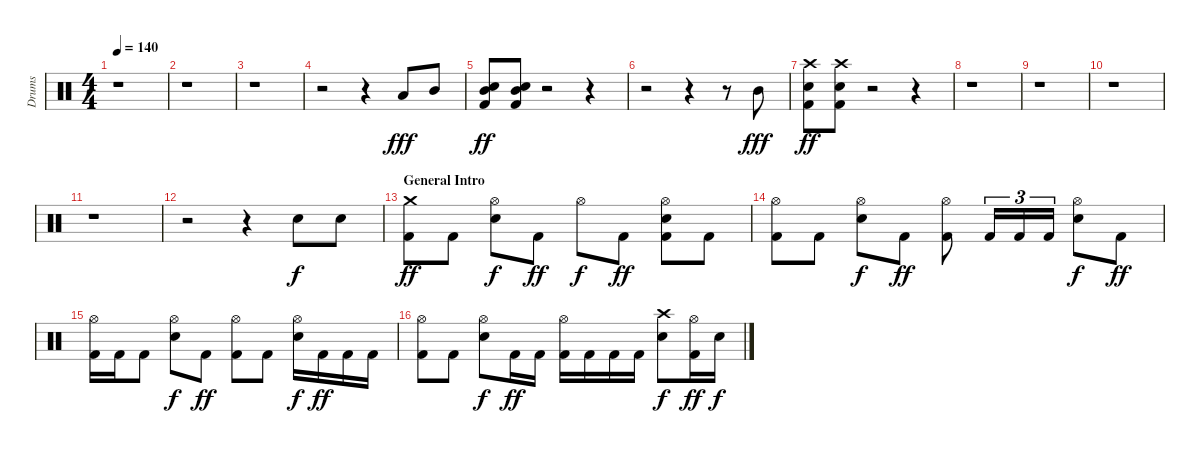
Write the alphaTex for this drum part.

\track ("Drums" "Drums") {instrument percussion}
\staff {score}
\articulation defaults
\ts (4 4)
\tempo 140
\clef neutral
\ks c
r.1{dy fff} |
r.1 |
r.1 |
r.2 r.4 "Low Tom (hit)".8 "Mid Tom (hit)".8 |
("Mid Tom (hit)" "Snare (hit) 2" "Kick (hit) 2").8{dy ff} ("Mid Tom (hit)" "Snare (hit) 2" "Kick (hit) 2").8 r.2 r.4 |
r.2 r.4 r.8 "Mid Tom (hit)".8{dy fff} |
("Crash high (hit)" "Snare (hit) 2" "Kick (hit) 2").8{dy ff} ("Crash high (hit)" "Snare (hit) 2" "Kick (hit) 2").8 r.2 r.4 |
r.1 |
r.1 |
r.1 |
r.1 |
r.2 r.4 "Snare (hit) 2".8{dy f} "Snare (hit) 2".8 |
\section ("" "General Intro")
("Crash medium (hit)" "Kick (hit) 2").8{dy ff} "Kick (hit) 2".8 ("Hi-Hat (open)" "Snare (hit) 2").8{dy f} "Kick (hit) 2".8{dy ff} "Hi-Hat (open)".8{dy f} "Kick (hit) 2".8{dy ff} ("Hi-Hat (open)" "Snare (hit) 2" "Kick (hit) 2").8 "Kick (hit) 2".8 |
("Hi-Hat (open)" "Kick (hit) 2").8 "Kick (hit) 2".8 ("Hi-Hat (open)" "Snare (hit) 2").8{dy f} "Kick (hit) 2".8{dy ff} ("Hi-Hat (open)" "Kick (hit) 2").8 "Kick (hit) 2".16{tu (3 2)} "Kick (hit) 2".16{tu (3 2)} "Kick (hit) 2".16{tu (3 2)} ("Hi-Hat (open)" "Snare (hit) 2").8{dy f} "Kick (hit) 2".8{dy ff} |
("Hi-Hat (open)" "Kick (hit) 2").16 "Kick (hit) 2".16 "Kick (hit) 2".8 ("Hi-Hat (open)" "Snare (hit) 2").8{dy f} "Kick (hit) 2".8{dy ff} ("Hi-Hat (open)" "Kick (hit) 2").8 "Kick (hit) 2".8 ("Hi-Hat (open)" "Snare (hit) 2").16{dy f} "Kick (hit) 2".16{dy ff} "Kick (hit) 2".16 "Kick (hit) 2".16 |
("Hi-Hat (open)" "Kick (hit) 2").8 "Kick (hit) 2".8 ("Hi-Hat (open)" "Snare (hit) 2").8{dy f} "Kick (hit) 2".16{dy ff} "Kick (hit) 2".16 ("Hi-Hat (open)" "Kick (hit) 2").16 "Kick (hit) 2".16 "Kick (hit) 2".16 "Kick (hit) 2".16 ("Crash high (hit)" "Snare (hit) 2").8{dy f} ("Hi-Hat (open)" "Kick (hit) 2").16{dy ff} "Snare (hit) 2".16{dy f}
